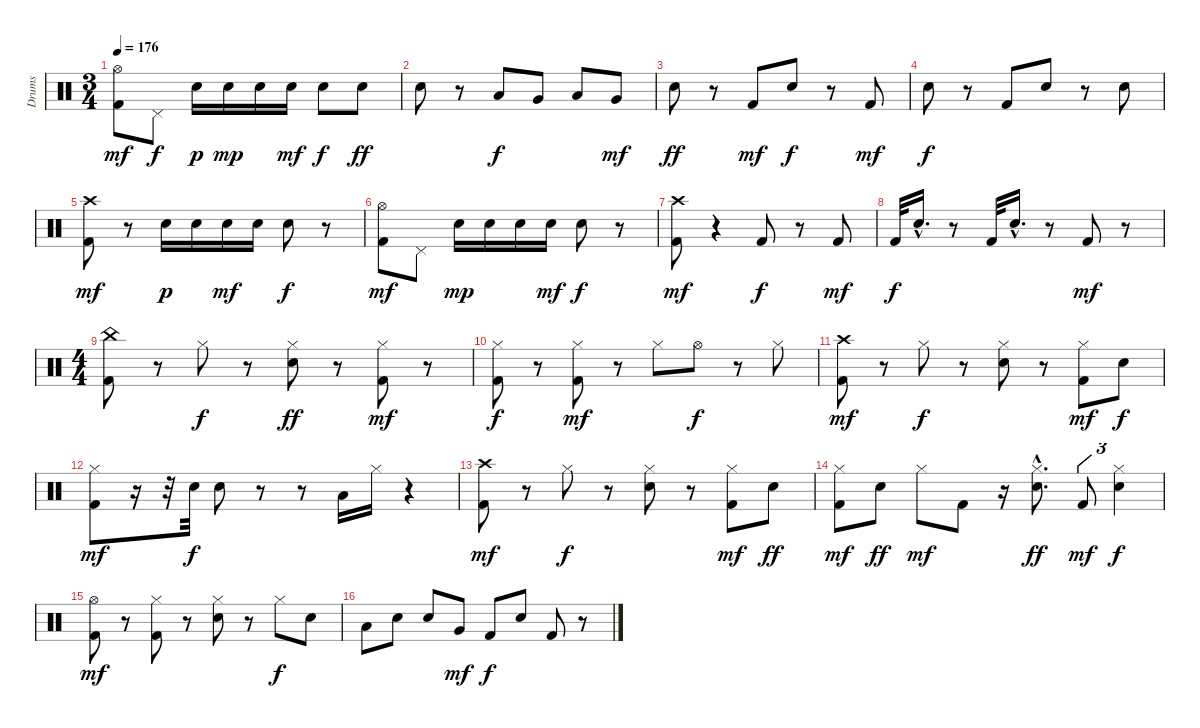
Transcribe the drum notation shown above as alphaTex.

\track ("Drums" "Drums") {instrument percussion}
\staff {score}
\articulation defaults
\ts (3 4)
\tempo 176
\clef neutral
\ks c
("Hi-Hat (open)" "Kick (hit) 2").8{dy mf} "Pedal Hi-Hat (hit)".8{dy f} "Snare (hit) 2".16{dy p} "Snare (hit) 2".16{dy mp} "Snare (hit) 2".16 "Snare (hit) 2".16{dy mf} "Snare (hit) 2".8{dy f} "Snare (hit) 2".8{dy ff} |
"Snare (hit) 2".8 r.8 "Low Tom (hit)".8{dy f} "Very Low Tom (hit)".8 "Low Tom (hit)".8 "Very Low Tom (hit)".8{dy mf} |
"Snare (hit) 2".8{dy ff} r.8 "Kick (hit) 2".8{dy mf} "Snare (hit) 2".8{dy f} r.8 "Kick (hit) 2".8{dy mf} |
"Snare (hit) 2".8{dy f} r.8 "Kick (hit) 2".8 "Snare (hit) 2".8 r.8 "Snare (hit) 2".8 |
("Crash high (hit)" "Kick (hit) 2").8{dy mf} r.8 "Snare (hit) 2".16{dy p} "Snare (hit) 2".16 "Snare (hit) 2".16{dy mf} "Snare (hit) 2".16 "Snare (hit) 2".8{dy f} r.8 |
("Hi-Hat (open)" "Kick (hit) 2").8{dy mf} "Pedal Hi-Hat (hit)".8 "Snare (hit) 2".16{dy mp} "Snare (hit) 2".16 "Snare (hit) 2".16 "Snare (hit) 2".16{dy mf} "Snare (hit) 2".8{dy f} r.8 |
("Crash high (hit)" "Kick (hit) 2").8{dy mf} r.4 "Kick (hit) 2".8{dy f} r.8 "Kick (hit) 2".8{dy mf} |
"Kick (hit) 2".32{dy f} "Snare (hit) 2"{hac}.16{d} r.8 "Kick (hit) 2".32 "Snare (hit) 2"{hac}.16{d} r.8 "Kick (hit) 2".8{dy mf} r.8 |
\ts (4 4)
("China (hit)" "Kick (hit) 2").8 r.8 "Hi-Hat (closed)".8{dy f} r.8 ("Hi-Hat (closed)" "Snare (hit) 2").8{dy ff} r.8 ("Hi-Hat (closed)" "Kick (hit) 2").8{dy mf} r.8 |
("Hi-Hat (closed)" "Kick (hit) 2").8{dy f} r.8 ("Hi-Hat (closed)" "Kick (hit) 2").8{dy mf} r.8 "Hi-Hat (closed)".8 "Hi-Hat (open)".8{dy f} r.8 "Hi-Hat (closed)".8 |
("Crash high (hit)" "Kick (hit) 2").8{dy mf} r.8 "Hi-Hat (closed)".8{dy f} r.8 ("Hi-Hat (closed)" "Snare (hit) 2").8 r.8 ("Hi-Hat (closed)" "Kick (hit) 2").8{dy mf} "Snare (hit) 2".8{dy f} |
("Hi-Hat (closed)" "Kick (hit) 2").8{dy mf} r.16 r.32 "Snare (hit) 2".32{dy f} "Snare (hit) 2".8 r.8 r.8 "Low Tom (hit)".16 "Hi-Hat (closed)".16 r.4 |
("Crash high (hit)" "Kick (hit) 2").8{dy mf} r.8 "Hi-Hat (closed)".8{dy f} r.8 ("Hi-Hat (closed)" "Snare (hit) 2").8 r.8 ("Hi-Hat (closed)" "Kick (hit) 2").8{dy mf} "Snare (hit) 2".8{dy ff} |
("Hi-Hat (closed)" "Kick (hit) 2").8{dy mf} "Snare (hit) 2".8{dy ff} "Hi-Hat (closed)".8{dy mf} "Kick (hit) 2".8 r.16 ("Hi-Hat (closed)"{hac} "Snare (hit) 2"{hac}).8{d dy ff} "Kick (hit) 2".8{tu (3 2) dy mf} ("Hi-Hat (closed)" "Snare (hit) 2").4{tu (3 2) dy f} |
("Hi-Hat (open)" "Kick (hit) 2").8{dy mf} r.8 ("Hi-Hat (closed)" "Kick (hit) 2").8 r.8 ("Hi-Hat (closed)" "Snare (hit) 2").8 r.8 "Hi-Hat (closed)".8{dy f} "Snare (hit) 2".8 |
"Low Tom (hit)".8 "Electric Snare (hit)".8 "Electric Snare (hit)".8 "Very Low Tom (hit)".8{dy mf} "Kick (hit) 2".8{dy f} "Electric Snare (hit)".8 "Kick (hit) 2".8 r.8
